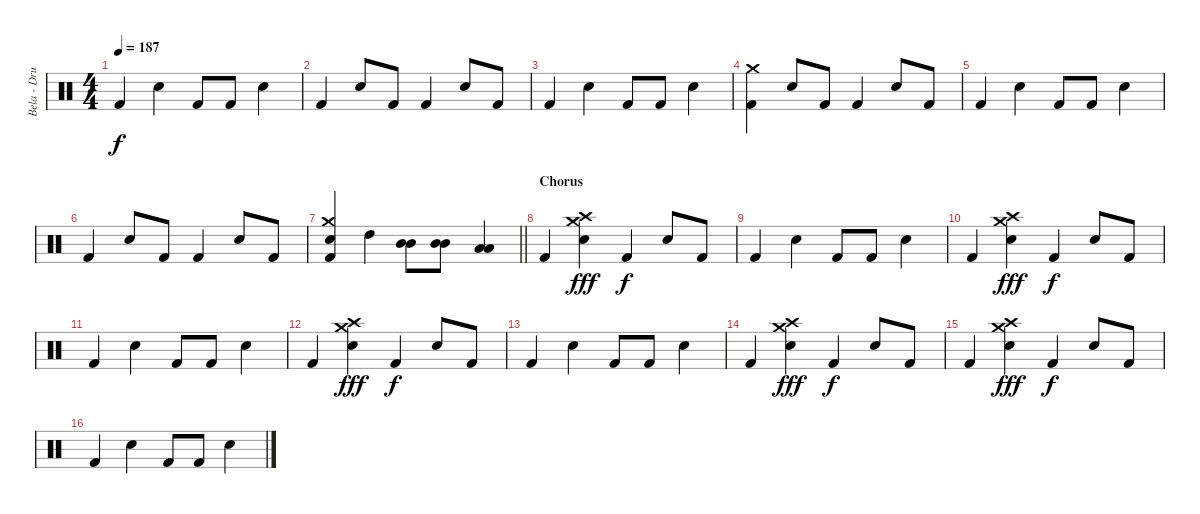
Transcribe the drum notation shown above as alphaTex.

\track ("Bela - Drums" "Bela - Dru") {instrument percussion}
\staff {score}
\articulation defaults
\ts (4 4)
\tempo 187
\clef neutral
\ks c "Kick (hit) 2".4{dy f} "Snare (hit) 2".4 "Kick (hit) 2".8 "Kick (hit) 2".8 "Snare (hit) 2".4
|
"Kick (hit) 2".4 "Snare (hit) 2".8 "Kick (hit) 2".8 "Kick (hit) 2".4 "Snare (hit) 2".8 "Kick (hit) 2".8 |
"Kick (hit) 2".4 "Snare (hit) 2".4 "Kick (hit) 2".8 "Kick (hit) 2".8 "Snare (hit) 2".4 |
("Crash medium (hit)" "Kick (hit) 2").4 "Snare (hit) 2".8 "Kick (hit) 2".8 "Kick (hit) 2".4 "Snare (hit) 2".8 "Kick (hit) 2".8 |
"Kick (hit) 2".4 "Snare (hit) 2".4 "Kick (hit) 2".8 "Kick (hit) 2".8 "Snare (hit) 2".4 |
"Kick (hit) 2".4 "Snare (hit) 2".8 "Kick (hit) 2".8 "Kick (hit) 2".4 "Snare (hit) 2".8 "Kick (hit) 2".8 |
\barLineRight lightlight
("Crash medium (hit)" "Electric Snare (hit)" "Kick (hit) 2").4 "High Tom (hit)".4 ("Mid Tom (hit)" "Mid Tom (hit)").8 ("Mid Tom (hit)" "Mid Tom (hit)").8 ("Low Tom (hit)" "Low Tom (hit)").4 |
\section ("" "Chorus")
"Kick (hit) 2".4 ("Crash medium (hit)" "Crash high (hit)" "Snare (hit) 2").4{dy fff} "Kick (hit) 2".4{dy f} "Snare (hit) 2".8 "Kick (hit) 2".8 |
"Kick (hit) 2".4 "Snare (hit) 2".4 "Kick (hit) 2".8 "Kick (hit) 2".8 "Snare (hit) 2".4 |
"Kick (hit) 2".4 ("Crash medium (hit)" "Crash high (hit)" "Snare (hit) 2").4{dy fff} "Kick (hit) 2".4{dy f} "Snare (hit) 2".8 "Kick (hit) 2".8 |
"Kick (hit) 2".4 "Snare (hit) 2".4 "Kick (hit) 2".8 "Kick (hit) 2".8 "Snare (hit) 2".4 |
"Kick (hit) 2".4 ("Crash medium (hit)" "Crash high (hit)" "Snare (hit) 2").4{dy fff} "Kick (hit) 2".4{dy f} "Snare (hit) 2".8 "Kick (hit) 2".8 |
"Kick (hit) 2".4 "Snare (hit) 2".4 "Kick (hit) 2".8 "Kick (hit) 2".8 "Snare (hit) 2".4 |
"Kick (hit) 2".4 ("Crash medium (hit)" "Crash high (hit)" "Snare (hit) 2").4{dy fff} "Kick (hit) 2".4{dy f} "Snare (hit) 2".8 "Kick (hit) 2".8 |
"Kick (hit) 2".4 ("Crash medium (hit)" "Crash high (hit)" "Snare (hit) 2").4{dy fff} "Kick (hit) 2".4{dy f} "Snare (hit) 2".8 "Kick (hit) 2".8 |
"Kick (hit) 2".4 "Snare (hit) 2".4 "Kick (hit) 2".8 "Kick (hit) 2".8 "Snare (hit) 2".4
